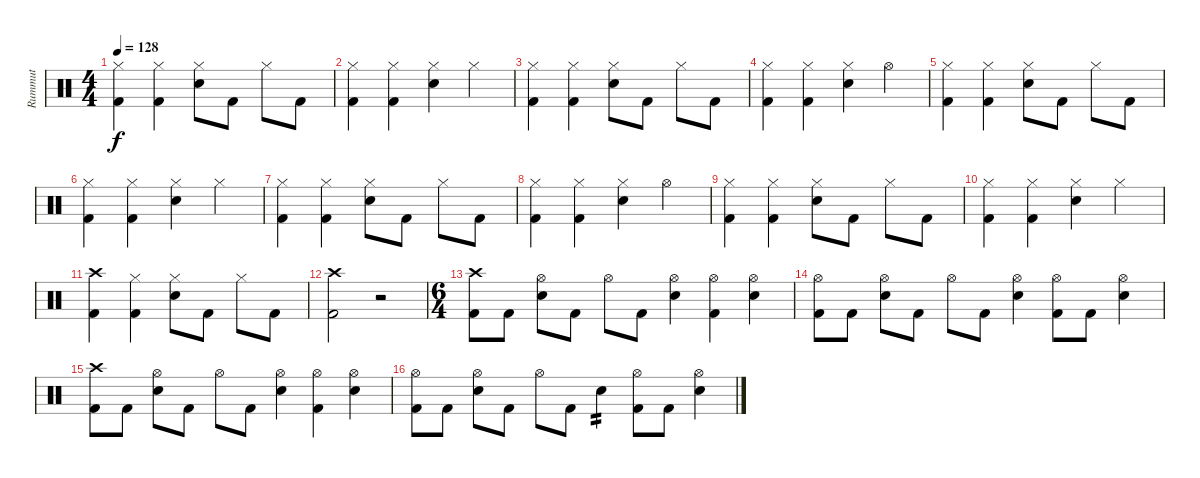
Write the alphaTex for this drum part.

\track ("Rummut" "Rummut") {instrument percussion}
\staff {score}
\articulation defaults
\ts (4 4)
\tempo 128
\clef neutral
\ks aminor
("Hi-Hat (closed)" "Kick (hit) 2").4{dy f} ("Hi-Hat (closed)" "Kick (hit) 2").4 ("Hi-Hat (closed)" "Electric Snare (hit)").8 "Kick (hit) 2".8 "Hi-Hat (closed)".8 "Kick (hit) 2".8 |
("Hi-Hat (closed)" "Kick (hit) 2").4 ("Hi-Hat (closed)" "Kick (hit) 2").4 ("Hi-Hat (closed)" "Electric Snare (hit)").4 "Hi-Hat (closed)".4 |
("Hi-Hat (closed)" "Kick (hit) 2").4 ("Hi-Hat (closed)" "Kick (hit) 2").4 ("Hi-Hat (closed)" "Electric Snare (hit)").8 "Kick (hit) 2".8 "Hi-Hat (closed)".8 "Kick (hit) 2".8 |
("Hi-Hat (closed)" "Kick (hit) 2").4 ("Hi-Hat (closed)" "Kick (hit) 2").4 ("Hi-Hat (closed)" "Electric Snare (hit)").4 "Hi-Hat (open)".4 |
("Hi-Hat (closed)" "Kick (hit) 2").4 ("Hi-Hat (closed)" "Kick (hit) 2").4 ("Hi-Hat (closed)" "Electric Snare (hit)").8 "Kick (hit) 2".8 "Hi-Hat (closed)".8 "Kick (hit) 2".8 |
("Hi-Hat (closed)" "Kick (hit) 2").4 ("Hi-Hat (closed)" "Kick (hit) 2").4 ("Hi-Hat (closed)" "Electric Snare (hit)").4 "Hi-Hat (closed)".4 |
("Hi-Hat (closed)" "Kick (hit) 2").4 ("Hi-Hat (closed)" "Kick (hit) 2").4 ("Hi-Hat (closed)" "Electric Snare (hit)").8 "Kick (hit) 2".8 "Hi-Hat (closed)".8 "Kick (hit) 2".8 |
("Hi-Hat (closed)" "Kick (hit) 2").4 ("Hi-Hat (closed)" "Kick (hit) 2").4 ("Hi-Hat (closed)" "Electric Snare (hit)").4 "Hi-Hat (open)".4 |
("Hi-Hat (closed)" "Kick (hit) 2").4 ("Hi-Hat (closed)" "Kick (hit) 2").4 ("Hi-Hat (closed)" "Electric Snare (hit)").8 "Kick (hit) 2".8 "Hi-Hat (closed)".8 "Kick (hit) 2".8 |
("Hi-Hat (closed)" "Kick (hit) 2").4 ("Hi-Hat (closed)" "Kick (hit) 2").4 ("Hi-Hat (closed)" "Electric Snare (hit)").4 "Hi-Hat (closed)".4 |
("Crash high (hit)" "Kick (hit) 2").4 ("Hi-Hat (closed)" "Kick (hit) 2").4 ("Hi-Hat (closed)" "Electric Snare (hit)").8 "Kick (hit) 2".8 "Hi-Hat (closed)".8 "Kick (hit) 2".8 |
("Crash high (hit)" "Kick (hit) 2").2 r.2 |
\ts (6 4)
("Crash high (hit)" "Kick (hit) 2").8 "Kick (hit) 2".8 ("Hi-Hat (open)" "Electric Snare (hit)").8 "Kick (hit) 2".8 "Hi-Hat (open)".8 "Kick (hit) 2".8 ("Hi-Hat (open)" "Electric Snare (hit)").4 ("Hi-Hat (open)" "Kick (hit) 2").4 ("Hi-Hat (open)" "Electric Snare (hit)").4 |
("Hi-Hat (open)" "Kick (hit) 2").8 "Kick (hit) 2".8 ("Hi-Hat (open)" "Electric Snare (hit)").8 "Kick (hit) 2".8 "Hi-Hat (open)".8 "Kick (hit) 2".8 ("Hi-Hat (open)" "Electric Snare (hit)").4 ("Hi-Hat (open)" "Kick (hit) 2").8 "Kick (hit) 2".8 ("Hi-Hat (open)" "Electric Snare (hit)").4 |
("Crash high (hit)" "Kick (hit) 2").8 "Kick (hit) 2".8 ("Hi-Hat (open)" "Electric Snare (hit)").8 "Kick (hit) 2".8 "Hi-Hat (open)".8 "Kick (hit) 2".8 ("Hi-Hat (open)" "Electric Snare (hit)").4 ("Hi-Hat (open)" "Kick (hit) 2").4 ("Hi-Hat (open)" "Electric Snare (hit)").4 |
("Hi-Hat (open)" "Kick (hit) 2").8 "Kick (hit) 2".8 ("Hi-Hat (open)" "Electric Snare (hit)").8 "Kick (hit) 2".8 "Hi-Hat (open)".8 "Kick (hit) 2".8 "Electric Snare (hit)".4{tp 2} ("Hi-Hat (open)" "Kick (hit) 2").8 "Kick (hit) 2".8 ("Hi-Hat (open)" "Electric Snare (hit)").4
